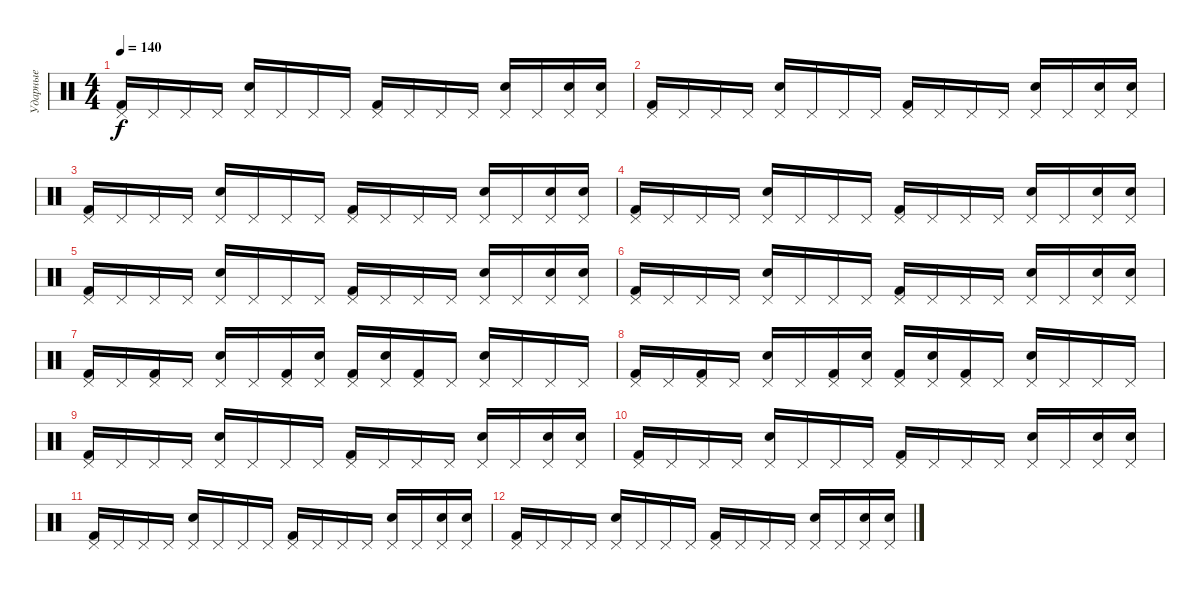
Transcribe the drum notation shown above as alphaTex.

\track ("Ударные" "Ударные") {instrument percussion}
\staff {score}
\articulation defaults
\ts (4 4)
\tempo 140
\clef neutral
\ks c
("Pedal Hi-Hat (hit)" "Kick (hit) 2").16{dy f} "Pedal Hi-Hat (hit)".16 "Pedal Hi-Hat (hit)".16 "Pedal Hi-Hat (hit)".16 ("Pedal Hi-Hat (hit)" "Electric Snare (hit)").16 "Pedal Hi-Hat (hit)".16 "Pedal Hi-Hat (hit)".16 "Pedal Hi-Hat (hit)".16 ("Pedal Hi-Hat (hit)" "Kick (hit) 2").16 "Pedal Hi-Hat (hit)".16 "Pedal Hi-Hat (hit)".16 "Pedal Hi-Hat (hit)".16 ("Pedal Hi-Hat (hit)" "Electric Snare (hit)").16 "Pedal Hi-Hat (hit)".16 ("Pedal Hi-Hat (hit)" "Electric Snare (hit)").16 ("Pedal Hi-Hat (hit)" "Electric Snare (hit)").16 |
("Pedal Hi-Hat (hit)" "Kick (hit) 2").16 "Pedal Hi-Hat (hit)".16 "Pedal Hi-Hat (hit)".16 "Pedal Hi-Hat (hit)".16 ("Pedal Hi-Hat (hit)" "Electric Snare (hit)").16 "Pedal Hi-Hat (hit)".16 "Pedal Hi-Hat (hit)".16 "Pedal Hi-Hat (hit)".16 ("Pedal Hi-Hat (hit)" "Kick (hit) 2").16 "Pedal Hi-Hat (hit)".16 "Pedal Hi-Hat (hit)".16 "Pedal Hi-Hat (hit)".16 ("Pedal Hi-Hat (hit)" "Electric Snare (hit)").16 "Pedal Hi-Hat (hit)".16 ("Pedal Hi-Hat (hit)" "Electric Snare (hit)").16 ("Pedal Hi-Hat (hit)" "Electric Snare (hit)").16 |
("Pedal Hi-Hat (hit)" "Kick (hit) 2").16 "Pedal Hi-Hat (hit)".16 "Pedal Hi-Hat (hit)".16 "Pedal Hi-Hat (hit)".16 ("Pedal Hi-Hat (hit)" "Electric Snare (hit)").16 "Pedal Hi-Hat (hit)".16 "Pedal Hi-Hat (hit)".16 "Pedal Hi-Hat (hit)".16 ("Pedal Hi-Hat (hit)" "Kick (hit) 2").16 "Pedal Hi-Hat (hit)".16 "Pedal Hi-Hat (hit)".16 "Pedal Hi-Hat (hit)".16 ("Pedal Hi-Hat (hit)" "Electric Snare (hit)").16 "Pedal Hi-Hat (hit)".16 ("Pedal Hi-Hat (hit)" "Electric Snare (hit)").16 ("Pedal Hi-Hat (hit)" "Electric Snare (hit)").16 |
("Pedal Hi-Hat (hit)" "Kick (hit) 2").16 "Pedal Hi-Hat (hit)".16 "Pedal Hi-Hat (hit)".16 "Pedal Hi-Hat (hit)".16 ("Pedal Hi-Hat (hit)" "Electric Snare (hit)").16 "Pedal Hi-Hat (hit)".16 "Pedal Hi-Hat (hit)".16 "Pedal Hi-Hat (hit)".16 ("Pedal Hi-Hat (hit)" "Kick (hit) 2").16 "Pedal Hi-Hat (hit)".16 "Pedal Hi-Hat (hit)".16 "Pedal Hi-Hat (hit)".16 ("Pedal Hi-Hat (hit)" "Electric Snare (hit)").16 "Pedal Hi-Hat (hit)".16 ("Pedal Hi-Hat (hit)" "Electric Snare (hit)").16 ("Pedal Hi-Hat (hit)" "Electric Snare (hit)").16 |
("Pedal Hi-Hat (hit)" "Kick (hit) 2").16 "Pedal Hi-Hat (hit)".16 "Pedal Hi-Hat (hit)".16 "Pedal Hi-Hat (hit)".16 ("Pedal Hi-Hat (hit)" "Electric Snare (hit)").16 "Pedal Hi-Hat (hit)".16 "Pedal Hi-Hat (hit)".16 "Pedal Hi-Hat (hit)".16 ("Pedal Hi-Hat (hit)" "Kick (hit) 2").16 "Pedal Hi-Hat (hit)".16 "Pedal Hi-Hat (hit)".16 "Pedal Hi-Hat (hit)".16 ("Pedal Hi-Hat (hit)" "Electric Snare (hit)").16 "Pedal Hi-Hat (hit)".16 ("Pedal Hi-Hat (hit)" "Electric Snare (hit)").16 ("Pedal Hi-Hat (hit)" "Electric Snare (hit)").16 |
("Pedal Hi-Hat (hit)" "Kick (hit) 2").16 "Pedal Hi-Hat (hit)".16 "Pedal Hi-Hat (hit)".16 "Pedal Hi-Hat (hit)".16 ("Pedal Hi-Hat (hit)" "Electric Snare (hit)").16 "Pedal Hi-Hat (hit)".16 "Pedal Hi-Hat (hit)".16 "Pedal Hi-Hat (hit)".16 ("Pedal Hi-Hat (hit)" "Kick (hit) 2").16 "Pedal Hi-Hat (hit)".16 "Pedal Hi-Hat (hit)".16 "Pedal Hi-Hat (hit)".16 ("Pedal Hi-Hat (hit)" "Electric Snare (hit)").16 "Pedal Hi-Hat (hit)".16 ("Pedal Hi-Hat (hit)" "Electric Snare (hit)").16 ("Pedal Hi-Hat (hit)" "Electric Snare (hit)").16 |
("Pedal Hi-Hat (hit)" "Kick (hit) 2").16 "Pedal Hi-Hat (hit)".16 ("Pedal Hi-Hat (hit)" "Kick (hit) 2").16 "Pedal Hi-Hat (hit)".16 ("Pedal Hi-Hat (hit)" "Electric Snare (hit)").16 "Pedal Hi-Hat (hit)".16 ("Pedal Hi-Hat (hit)" "Kick (hit) 2").16 ("Pedal Hi-Hat (hit)" "Electric Snare (hit)").16 ("Pedal Hi-Hat (hit)" "Kick (hit) 2").16 ("Pedal Hi-Hat (hit)" "Electric Snare (hit)").16 ("Pedal Hi-Hat (hit)" "Kick (hit) 2").16 "Pedal Hi-Hat (hit)".16 ("Pedal Hi-Hat (hit)" "Electric Snare (hit)").16 "Pedal Hi-Hat (hit)".16 "Pedal Hi-Hat (hit)".16 "Pedal Hi-Hat (hit)".16 |
("Pedal Hi-Hat (hit)" "Kick (hit) 2").16 "Pedal Hi-Hat (hit)".16 ("Pedal Hi-Hat (hit)" "Kick (hit) 2").16 "Pedal Hi-Hat (hit)".16 ("Pedal Hi-Hat (hit)" "Electric Snare (hit)").16 "Pedal Hi-Hat (hit)".16 ("Pedal Hi-Hat (hit)" "Kick (hit) 2").16 ("Pedal Hi-Hat (hit)" "Electric Snare (hit)").16 ("Pedal Hi-Hat (hit)" "Kick (hit) 2").16 ("Pedal Hi-Hat (hit)" "Electric Snare (hit)").16 ("Pedal Hi-Hat (hit)" "Kick (hit) 2").16 "Pedal Hi-Hat (hit)".16 ("Pedal Hi-Hat (hit)" "Electric Snare (hit)").16 "Pedal Hi-Hat (hit)".16 "Pedal Hi-Hat (hit)".16 "Pedal Hi-Hat (hit)".16 |
("Pedal Hi-Hat (hit)" "Kick (hit) 2").16 "Pedal Hi-Hat (hit)".16 "Pedal Hi-Hat (hit)".16 "Pedal Hi-Hat (hit)".16 ("Pedal Hi-Hat (hit)" "Electric Snare (hit)").16 "Pedal Hi-Hat (hit)".16 "Pedal Hi-Hat (hit)".16 "Pedal Hi-Hat (hit)".16 ("Pedal Hi-Hat (hit)" "Kick (hit) 2").16 "Pedal Hi-Hat (hit)".16 "Pedal Hi-Hat (hit)".16 "Pedal Hi-Hat (hit)".16 ("Pedal Hi-Hat (hit)" "Electric Snare (hit)").16 "Pedal Hi-Hat (hit)".16 ("Pedal Hi-Hat (hit)" "Electric Snare (hit)").16 ("Pedal Hi-Hat (hit)" "Electric Snare (hit)").16 |
("Pedal Hi-Hat (hit)" "Kick (hit) 2").16 "Pedal Hi-Hat (hit)".16 "Pedal Hi-Hat (hit)".16 "Pedal Hi-Hat (hit)".16 ("Pedal Hi-Hat (hit)" "Electric Snare (hit)").16 "Pedal Hi-Hat (hit)".16 "Pedal Hi-Hat (hit)".16 "Pedal Hi-Hat (hit)".16 ("Pedal Hi-Hat (hit)" "Kick (hit) 2").16 "Pedal Hi-Hat (hit)".16 "Pedal Hi-Hat (hit)".16 "Pedal Hi-Hat (hit)".16 ("Pedal Hi-Hat (hit)" "Electric Snare (hit)").16 "Pedal Hi-Hat (hit)".16 ("Pedal Hi-Hat (hit)" "Electric Snare (hit)").16 ("Pedal Hi-Hat (hit)" "Electric Snare (hit)").16 |
("Pedal Hi-Hat (hit)" "Kick (hit) 2").16 "Pedal Hi-Hat (hit)".16 "Pedal Hi-Hat (hit)".16 "Pedal Hi-Hat (hit)".16 ("Pedal Hi-Hat (hit)" "Electric Snare (hit)").16 "Pedal Hi-Hat (hit)".16 "Pedal Hi-Hat (hit)".16 "Pedal Hi-Hat (hit)".16 ("Pedal Hi-Hat (hit)" "Kick (hit) 2").16 "Pedal Hi-Hat (hit)".16 "Pedal Hi-Hat (hit)".16 "Pedal Hi-Hat (hit)".16 ("Pedal Hi-Hat (hit)" "Electric Snare (hit)").16 "Pedal Hi-Hat (hit)".16 ("Pedal Hi-Hat (hit)" "Electric Snare (hit)").16 ("Pedal Hi-Hat (hit)" "Electric Snare (hit)").16 |
("Pedal Hi-Hat (hit)" "Kick (hit) 2").16 "Pedal Hi-Hat (hit)".16 "Pedal Hi-Hat (hit)".16 "Pedal Hi-Hat (hit)".16 ("Pedal Hi-Hat (hit)" "Electric Snare (hit)").16 "Pedal Hi-Hat (hit)".16 "Pedal Hi-Hat (hit)".16 "Pedal Hi-Hat (hit)".16 ("Pedal Hi-Hat (hit)" "Kick (hit) 2").16 "Pedal Hi-Hat (hit)".16 "Pedal Hi-Hat (hit)".16 "Pedal Hi-Hat (hit)".16 ("Pedal Hi-Hat (hit)" "Electric Snare (hit)").16 "Pedal Hi-Hat (hit)".16 ("Pedal Hi-Hat (hit)" "Electric Snare (hit)").16 ("Pedal Hi-Hat (hit)" "Electric Snare (hit)").16
